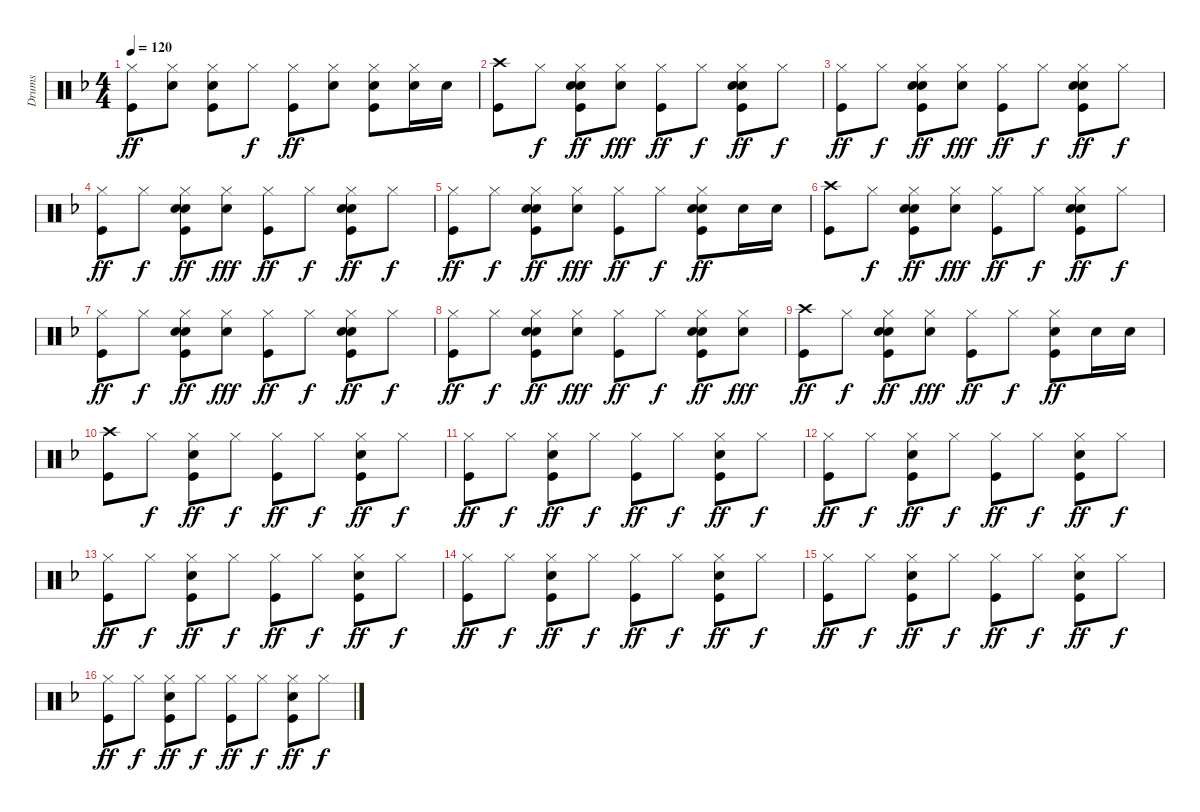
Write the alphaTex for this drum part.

\track ("Drums" "Drums") {instrument percussion}
\staff {score}
\articulation defaults
\ts (4 4)
\tempo 120
\clef neutral
\ks f
("Hi-Hat (closed)" "Kick (hit)").8{dy ff} ("Hi-Hat (closed)" "Snare (hit) 2").8 ("Hi-Hat (closed)" "Snare (hit) 2" "Kick (hit)").8 "Hi-Hat (closed)".8{dy f} ("Hi-Hat (closed)" "Kick (hit)").8{dy ff} ("Hi-Hat (closed)" "Snare (hit) 2").8 ("Hi-Hat (closed)" "Snare (hit) 2" "Kick (hit)").8 ("Hi-Hat (closed)" "Snare (hit) 2").16 "Snare (hit) 2".16 |
("Crash high (hit)" "Kick (hit)").8 "Hi-Hat (closed)".8{dy f} ("Hi-Hat (closed)" "Hand Clap (hit)" "Snare (hit) 2" "Kick (hit)").8{dy ff} ("Hi-Hat (closed)" "Hand Clap (hit)").8{dy fff} ("Hi-Hat (closed)" "Kick (hit)").8{dy ff} "Hi-Hat (closed)".8{dy f} ("Hi-Hat (closed)" "Hand Clap (hit)" "Snare (hit) 2" "Kick (hit)").8{dy ff} "Hi-Hat (closed)".8{dy f} |
("Hi-Hat (closed)" "Kick (hit)").8{dy ff} "Hi-Hat (closed)".8{dy f} ("Hi-Hat (closed)" "Hand Clap (hit)" "Snare (hit) 2" "Kick (hit)").8{dy ff} ("Hi-Hat (closed)" "Hand Clap (hit)").8{dy fff} ("Hi-Hat (closed)" "Kick (hit)").8{dy ff} "Hi-Hat (closed)".8{dy f} ("Hi-Hat (closed)" "Hand Clap (hit)" "Snare (hit) 2" "Kick (hit)").8{dy ff} "Hi-Hat (closed)".8{dy f} |
("Hi-Hat (closed)" "Kick (hit)").8{dy ff} "Hi-Hat (closed)".8{dy f} ("Hi-Hat (closed)" "Hand Clap (hit)" "Snare (hit) 2" "Kick (hit)").8{dy ff} ("Hi-Hat (closed)" "Hand Clap (hit)").8{dy fff} ("Hi-Hat (closed)" "Kick (hit)").8{dy ff} "Hi-Hat (closed)".8{dy f} ("Hi-Hat (closed)" "Hand Clap (hit)" "Snare (hit) 2" "Kick (hit)").8{dy ff} "Hi-Hat (closed)".8{dy f} |
("Hi-Hat (closed)" "Kick (hit)").8{dy ff} "Hi-Hat (closed)".8{dy f} ("Hi-Hat (closed)" "Hand Clap (hit)" "Snare (hit) 2" "Kick (hit)").8{dy ff} ("Hi-Hat (closed)" "Hand Clap (hit)").8{dy fff} ("Hi-Hat (closed)" "Kick (hit)").8{dy ff} "Hi-Hat (closed)".8{dy f} ("Hi-Hat (closed)" "Hand Clap (hit)" "Snare (hit) 2" "Kick (hit)").8{dy ff} "Snare (hit) 2".16 "Snare (hit) 2".16 |
("Crash high (hit)" "Kick (hit)").8 "Hi-Hat (closed)".8{dy f} ("Hi-Hat (closed)" "Hand Clap (hit)" "Snare (hit) 2" "Kick (hit)").8{dy ff} ("Hi-Hat (closed)" "Hand Clap (hit)").8{dy fff} ("Hi-Hat (closed)" "Kick (hit)").8{dy ff} "Hi-Hat (closed)".8{dy f} ("Hi-Hat (closed)" "Hand Clap (hit)" "Snare (hit) 2" "Kick (hit)").8{dy ff} "Hi-Hat (closed)".8{dy f} |
("Hi-Hat (closed)" "Kick (hit)").8{dy ff} "Hi-Hat (closed)".8{dy f} ("Hi-Hat (closed)" "Hand Clap (hit)" "Snare (hit) 2" "Kick (hit)").8{dy ff} ("Hi-Hat (closed)" "Hand Clap (hit)").8{dy fff} ("Hi-Hat (closed)" "Kick (hit)").8{dy ff} "Hi-Hat (closed)".8{dy f} ("Hi-Hat (closed)" "Hand Clap (hit)" "Snare (hit) 2" "Kick (hit)").8{dy ff} "Hi-Hat (closed)".8{dy f} |
("Hi-Hat (closed)" "Kick (hit)").8{dy ff} "Hi-Hat (closed)".8{dy f} ("Hi-Hat (closed)" "Hand Clap (hit)" "Snare (hit) 2" "Kick (hit)").8{dy ff} ("Hi-Hat (closed)" "Hand Clap (hit)").8{dy fff} ("Hi-Hat (closed)" "Kick (hit)").8{dy ff} "Hi-Hat (closed)".8{dy f} ("Hi-Hat (closed)" "Hand Clap (hit)" "Snare (hit) 2" "Kick (hit)").8{dy ff} ("Hi-Hat (closed)" "Hand Clap (hit)").8{dy fff} |
("Crash high (hit)" "Kick (hit)").8{dy ff} "Hi-Hat (closed)".8{dy f} ("Hi-Hat (closed)" "Hand Clap (hit)" "Snare (hit) 2" "Kick (hit)").8{dy ff} ("Hi-Hat (closed)" "Hand Clap (hit)").8{dy fff} ("Hi-Hat (closed)" "Kick (hit)").8{dy ff} "Hi-Hat (closed)".8{dy f} ("Hi-Hat (closed)" "Snare (hit) 2" "Kick (hit)").8{dy ff} "Snare (hit) 2".16 "Snare (hit) 2".16 |
("Crash high (hit)" "Kick (hit)").8 "Hi-Hat (closed)".8{dy f} ("Hi-Hat (closed)" "Snare (hit) 2" "Kick (hit)").8{dy ff} "Hi-Hat (closed)".8{dy f} ("Hi-Hat (closed)" "Kick (hit)").8{dy ff} "Hi-Hat (closed)".8{dy f} ("Hi-Hat (closed)" "Snare (hit) 2" "Kick (hit)").8{dy ff} "Hi-Hat (closed)".8{dy f} |
("Hi-Hat (closed)" "Kick (hit)").8{dy ff} "Hi-Hat (closed)".8{dy f} ("Hi-Hat (closed)" "Snare (hit) 2" "Kick (hit)").8{dy ff} "Hi-Hat (closed)".8{dy f} ("Hi-Hat (closed)" "Kick (hit)").8{dy ff} "Hi-Hat (closed)".8{dy f} ("Hi-Hat (closed)" "Snare (hit) 2" "Kick (hit)").8{dy ff} "Hi-Hat (closed)".8{dy f} |
("Hi-Hat (closed)" "Kick (hit)").8{dy ff} "Hi-Hat (closed)".8{dy f} ("Hi-Hat (closed)" "Snare (hit) 2" "Kick (hit)").8{dy ff} "Hi-Hat (closed)".8{dy f} ("Hi-Hat (closed)" "Kick (hit)").8{dy ff} "Hi-Hat (closed)".8{dy f} ("Hi-Hat (closed)" "Snare (hit) 2" "Kick (hit)").8{dy ff} "Hi-Hat (closed)".8{dy f} |
("Hi-Hat (closed)" "Kick (hit)").8{dy ff} "Hi-Hat (closed)".8{dy f} ("Hi-Hat (closed)" "Snare (hit) 2" "Kick (hit)").8{dy ff} "Hi-Hat (closed)".8{dy f} ("Hi-Hat (closed)" "Kick (hit)").8{dy ff} "Hi-Hat (closed)".8{dy f} ("Hi-Hat (closed)" "Snare (hit) 2" "Kick (hit)").8{dy ff} "Hi-Hat (closed)".8{dy f} |
("Hi-Hat (closed)" "Kick (hit)").8{dy ff} "Hi-Hat (closed)".8{dy f} ("Hi-Hat (closed)" "Snare (hit) 2" "Kick (hit)").8{dy ff} "Hi-Hat (closed)".8{dy f} ("Hi-Hat (closed)" "Kick (hit)").8{dy ff} "Hi-Hat (closed)".8{dy f} ("Hi-Hat (closed)" "Snare (hit) 2" "Kick (hit)").8{dy ff} "Hi-Hat (closed)".8{dy f} |
("Hi-Hat (closed)" "Kick (hit)").8{dy ff} "Hi-Hat (closed)".8{dy f} ("Hi-Hat (closed)" "Snare (hit) 2" "Kick (hit)").8{dy ff} "Hi-Hat (closed)".8{dy f} ("Hi-Hat (closed)" "Kick (hit)").8{dy ff} "Hi-Hat (closed)".8{dy f} ("Hi-Hat (closed)" "Snare (hit) 2" "Kick (hit)").8{dy ff} "Hi-Hat (closed)".8{dy f} |
("Hi-Hat (closed)" "Kick (hit)").8{dy ff} "Hi-Hat (closed)".8{dy f} ("Hi-Hat (closed)" "Snare (hit) 2" "Kick (hit)").8{dy ff} "Hi-Hat (closed)".8{dy f} ("Hi-Hat (closed)" "Kick (hit)").8{dy ff} "Hi-Hat (closed)".8{dy f} ("Hi-Hat (closed)" "Snare (hit) 2" "Kick (hit)").8{dy ff} "Hi-Hat (closed)".8{dy f}
